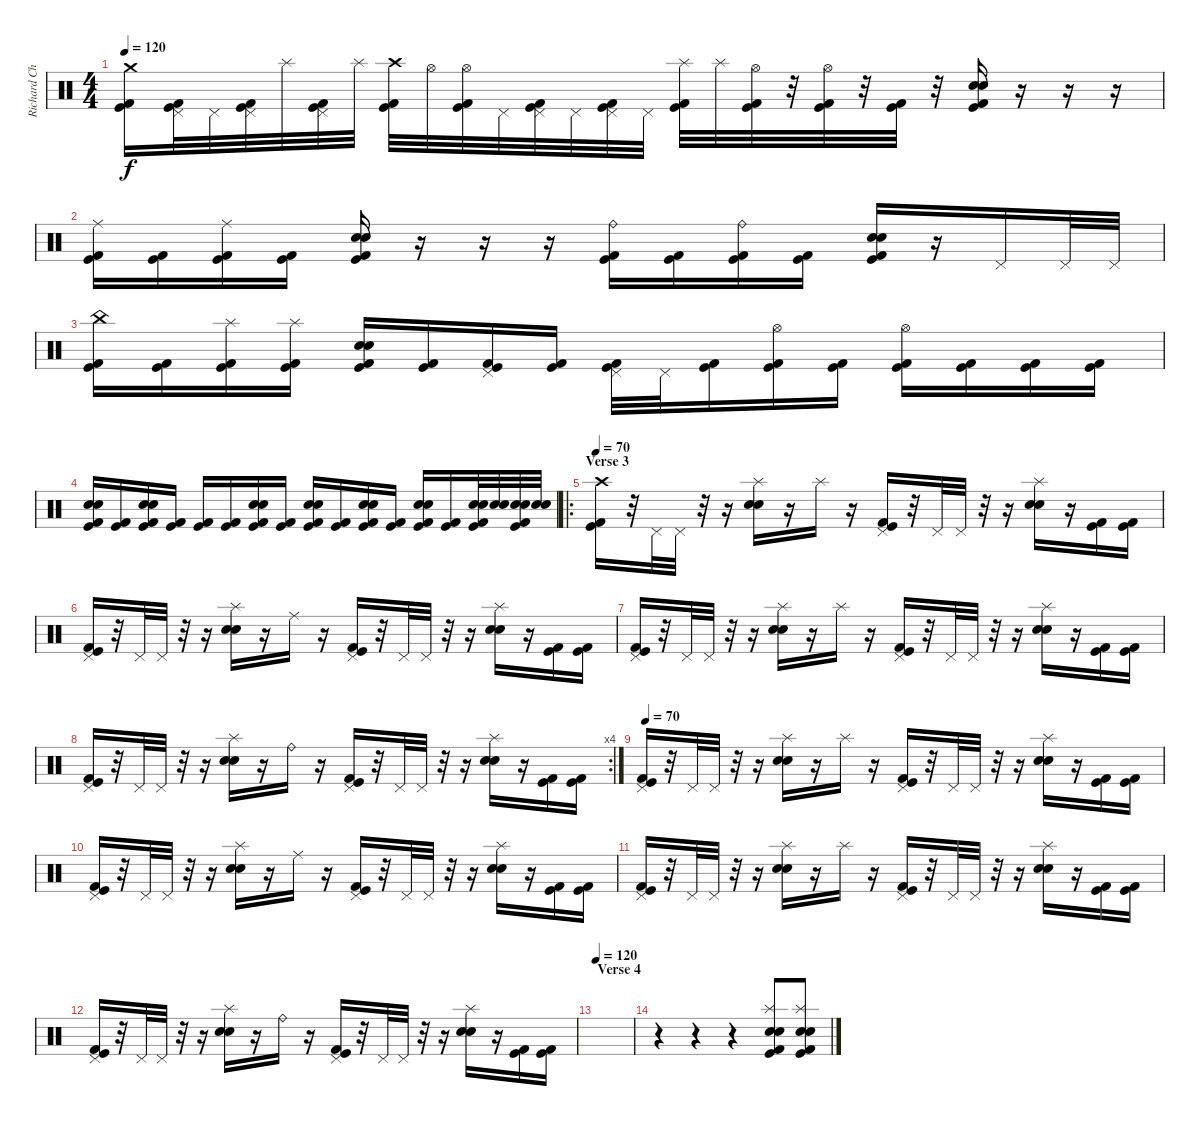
\track ("Richard Christy" "Richard Ch") {instrument percussion}
\staff {score}
\articulation defaults
\ts (4 4)
\tempo 120
\clef neutral
\ks c
("Crash medium (hit)" "Kick (hit)" "Kick (hit) 2").16{dy f} ("Pedal Hi-Hat (hit)" "Kick (hit)" "Kick (hit) 2").32 "Pedal Hi-Hat (hit)".32 ("Pedal Hi-Hat (hit)" "Kick (hit)" "Kick (hit) 2").32 "Splash (hit)".32 ("Pedal Hi-Hat (hit)" "Kick (hit)" "Kick (hit) 2").32 "Splash (hit)".32 ("Crash high (hit)" "Kick (hit)" "Kick (hit) 2").32 "Hi-Hat (open)".32 ("Hi-Hat (open)" "Kick (hit)" "Kick (hit) 2").32 "Pedal Hi-Hat (hit)".32 ("Pedal Hi-Hat (hit)" "Kick (hit)" "Kick (hit) 2").32 "Pedal Hi-Hat (hit)".32 ("Pedal Hi-Hat (hit)" "Kick (hit)" "Kick (hit) 2").32 "Pedal Hi-Hat (hit)".32 ("Splash (hit)" "Kick (hit)" "Kick (hit) 2").32 "Splash (hit)".32 ("Hi-Hat (open)" "Kick (hit)" "Kick (hit) 2").32 r.32 ("Hi-Hat (open)" "Kick (hit)" "Kick (hit) 2").32 r.32 ("Kick (hit)" "Kick (hit) 2").32 r.32 ("Electric Snare (hit)" "Snare (hit) 2" "Kick (hit)" "Kick (hit) 2").16 r.16 r.16 r.16 |
("Ride (middle)" "Kick (hit)" "Kick (hit) 2").16 ("Kick (hit)" "Kick (hit) 2").16 ("Ride (middle)" "Kick (hit)" "Kick (hit) 2").16 ("Kick (hit)" "Kick (hit) 2").16 ("Electric Snare (hit)" "Snare (hit) 2" "Kick (hit)" "Kick (hit) 2").16 r.16 r.16 r.16 ("Ride (bell)" "Kick (hit)" "Kick (hit) 2").16 ("Kick (hit)" "Kick (hit) 2").16 ("Ride (bell)" "Kick (hit)" "Kick (hit) 2").16 ("Kick (hit)" "Kick (hit) 2").16 ("Electric Snare (hit)" "Snare (hit) 2" "Kick (hit)" "Kick (hit) 2").16 r.16 "Pedal Hi-Hat (hit)".16 "Pedal Hi-Hat (hit)".32 "Pedal Hi-Hat (hit)".32 |
("China (hit)" "Kick (hit)" "Kick (hit) 2").16 ("Kick (hit)" "Kick (hit) 2").16 ("Splash (hit)" "Kick (hit)" "Kick (hit) 2").16 ("Splash (hit)" "Kick (hit)" "Kick (hit) 2").16 ("Snare (hit) 2" "Electric Snare (hit)" "Kick (hit)" "Kick (hit) 2").16 ("Kick (hit)" "Kick (hit) 2").16 ("Pedal Hi-Hat (hit)" "Kick (hit)" "Kick (hit) 2").16 ("Kick (hit)" "Kick (hit) 2").16 ("Pedal Hi-Hat (hit)" "Kick (hit)" "Kick (hit) 2").32 "Pedal Hi-Hat (hit)".32 ("Kick (hit)" "Kick (hit) 2").16 ("Hi-Hat (open)" "Kick (hit)" "Kick (hit) 2").16 ("Kick (hit)" "Kick (hit) 2").16 ("Hi-Hat (open)" "Kick (hit)" "Kick (hit) 2").16 ("Kick (hit)" "Kick (hit) 2").16 ("Kick (hit)" "Kick (hit) 2").16 ("Kick (hit)" "Kick (hit) 2").16 |
("Snare (hit) 2" "Electric Snare (hit)" "Kick (hit)" "Kick (hit) 2").16 ("Kick (hit)" "Kick (hit) 2").16 ("Electric Snare (hit)" "Snare (hit) 2" "Kick (hit)" "Kick (hit) 2").16 ("Kick (hit)" "Kick (hit) 2").16 ("Kick (hit)" "Kick (hit) 2").16 ("Kick (hit)" "Kick (hit) 2").16 ("Electric Snare (hit)" "Snare (hit) 2" "Kick (hit)" "Kick (hit) 2").16 ("Kick (hit)" "Kick (hit) 2").16 ("Electric Snare (hit)" "Snare (hit) 2" "Kick (hit)" "Kick (hit) 2").16 ("Kick (hit)" "Kick (hit) 2").16 ("Snare (hit) 2" "Electric Snare (hit)" "Kick (hit)" "Kick (hit) 2").16 ("Kick (hit)" "Kick (hit) 2").16 ("Snare (hit) 2" "Electric Snare (hit)" "Kick (hit)" "Kick (hit) 2").16 ("Kick (hit)" "Kick (hit) 2").16 ("Snare (hit) 2" "Electric Snare (hit)" "Kick (hit)" "Kick (hit) 2").32 ("Snare (hit) 2" "Electric Snare (hit)").32 ("Snare (hit) 2" "Electric Snare (hit)" "Kick (hit)" "Kick (hit) 2").32 ("Snare (hit) 2" "Electric Snare (hit)").32 |
\ro
\section ("" "Verse 3")
\tempo 70
("Crash high (hit)" "Kick (hit) 2" "Kick (hit)").16 r.32 "Pedal Hi-Hat (hit)".32 "Pedal Hi-Hat (hit)".32 r.32 r.16 ("Splash (hit)" "Snare (hit) 2" "Electric Snare (hit)").16 r.16 "Splash (hit)".16 r.16 ("Pedal Hi-Hat (hit)" "Kick (hit)" "Kick (hit) 2").16 r.32 "Pedal Hi-Hat (hit)".32 "Pedal Hi-Hat (hit)".32 r.32 r.16 ("Splash (hit)" "Snare (hit) 2" "Electric Snare (hit)").16 r.16 ("Kick (hit)" "Kick (hit) 2").16 ("Kick (hit)" "Kick (hit) 2").16 |
("Pedal Hi-Hat (hit)" "Kick (hit) 2" "Kick (hit)").16 r.32 "Pedal Hi-Hat (hit)".32 "Pedal Hi-Hat (hit)".32 r.32 r.16 ("Splash (hit)" "Snare (hit) 2" "Electric Snare (hit)").16 r.16 "Ride (middle)".16 r.16 ("Pedal Hi-Hat (hit)" "Kick (hit)" "Kick (hit) 2").16 r.32 "Pedal Hi-Hat (hit)".32 "Pedal Hi-Hat (hit)".32 r.32 r.16 ("Splash (hit)" "Snare (hit) 2" "Electric Snare (hit)").16 r.16 ("Kick (hit)" "Kick (hit) 2").16 ("Kick (hit)" "Kick (hit) 2").16 |
("Pedal Hi-Hat (hit)" "Kick (hit) 2" "Kick (hit)").16 r.32 "Pedal Hi-Hat (hit)".32 "Pedal Hi-Hat (hit)".32 r.32 r.16 ("Splash (hit)" "Snare (hit) 2" "Electric Snare (hit)").16 r.16 "Splash (hit)".16 r.16 ("Pedal Hi-Hat (hit)" "Kick (hit)" "Kick (hit) 2").16 r.32 "Pedal Hi-Hat (hit)".32 "Pedal Hi-Hat (hit)".32 r.32 r.16 ("Splash (hit)" "Snare (hit) 2" "Electric Snare (hit)").16 r.16 ("Kick (hit)" "Kick (hit) 2").16 ("Kick (hit)" "Kick (hit) 2").16 |
\rc 4
("Pedal Hi-Hat (hit)" "Kick (hit) 2" "Kick (hit)").16 r.32 "Pedal Hi-Hat (hit)".32 "Pedal Hi-Hat (hit)".32 r.32 r.16 ("Splash (hit)" "Snare (hit) 2" "Electric Snare (hit)").16 r.16 "Ride (bell)".16 r.16 ("Pedal Hi-Hat (hit)" "Kick (hit)" "Kick (hit) 2").16 r.32 "Pedal Hi-Hat (hit)".32 "Pedal Hi-Hat (hit)".32 r.32 r.16 ("Splash (hit)" "Snare (hit) 2" "Electric Snare (hit)").16 r.16 ("Kick (hit)" "Kick (hit) 2").16 ("Kick (hit)" "Kick (hit) 2").16 |
\tempo 70
("Pedal Hi-Hat (hit)" "Kick (hit) 2" "Kick (hit)").16 r.32 "Pedal Hi-Hat (hit)".32 "Pedal Hi-Hat (hit)".32 r.32 r.16 ("Splash (hit)" "Snare (hit) 2" "Electric Snare (hit)").16 r.16 "Splash (hit)".16 r.16 ("Pedal Hi-Hat (hit)" "Kick (hit)" "Kick (hit) 2").16 r.32 "Pedal Hi-Hat (hit)".32 "Pedal Hi-Hat (hit)".32 r.32 r.16 ("Splash (hit)" "Snare (hit) 2" "Electric Snare (hit)").16 r.16 ("Kick (hit)" "Kick (hit) 2").16 ("Kick (hit)" "Kick (hit) 2").16 |
("Pedal Hi-Hat (hit)" "Kick (hit) 2" "Kick (hit)").16 r.32 "Pedal Hi-Hat (hit)".32 "Pedal Hi-Hat (hit)".32 r.32 r.16 ("Splash (hit)" "Snare (hit) 2" "Electric Snare (hit)").16 r.16 "Ride (middle)".16 r.16 ("Pedal Hi-Hat (hit)" "Kick (hit)" "Kick (hit) 2").16 r.32 "Pedal Hi-Hat (hit)".32 "Pedal Hi-Hat (hit)".32 r.32 r.16 ("Splash (hit)" "Snare (hit) 2" "Electric Snare (hit)").16 r.16 ("Kick (hit)" "Kick (hit) 2").16 ("Kick (hit)" "Kick (hit) 2").16 |
("Pedal Hi-Hat (hit)" "Kick (hit) 2" "Kick (hit)").16 r.32 "Pedal Hi-Hat (hit)".32 "Pedal Hi-Hat (hit)".32 r.32 r.16 ("Splash (hit)" "Snare (hit) 2" "Electric Snare (hit)").16 r.16 "Splash (hit)".16 r.16 ("Pedal Hi-Hat (hit)" "Kick (hit)" "Kick (hit) 2").16 r.32 "Pedal Hi-Hat (hit)".32 "Pedal Hi-Hat (hit)".32 r.32 r.16 ("Splash (hit)" "Snare (hit) 2" "Electric Snare (hit)").16 r.16 ("Kick (hit)" "Kick (hit) 2").16 ("Kick (hit)" "Kick (hit) 2").16 |
("Pedal Hi-Hat (hit)" "Kick (hit) 2" "Kick (hit)").16 r.32 "Pedal Hi-Hat (hit)".32 "Pedal Hi-Hat (hit)".32 r.32 r.16 ("Splash (hit)" "Snare (hit) 2" "Electric Snare (hit)").16 r.16 "Ride (bell)".16 r.16 ("Pedal Hi-Hat (hit)" "Kick (hit)" "Kick (hit) 2").16 r.32 "Pedal Hi-Hat (hit)".32 "Pedal Hi-Hat (hit)".32 r.32 r.16 ("Splash (hit)" "Snare (hit) 2" "Electric Snare (hit)").16 r.16 ("Kick (hit)" "Kick (hit) 2").16 ("Kick (hit)" "Kick (hit) 2").16 |
\section ("" "Verse 4")
\tempo 120
|
r.4 r.4 r.4 ("Splash (hit)" "Electric Snare (hit)" "Snare (hit) 2" "Kick (hit) 2" "Kick (hit)").8 ("Splash (hit)" "Electric Snare (hit)" "Snare (hit) 2" "Kick (hit) 2" "Kick (hit)").8
